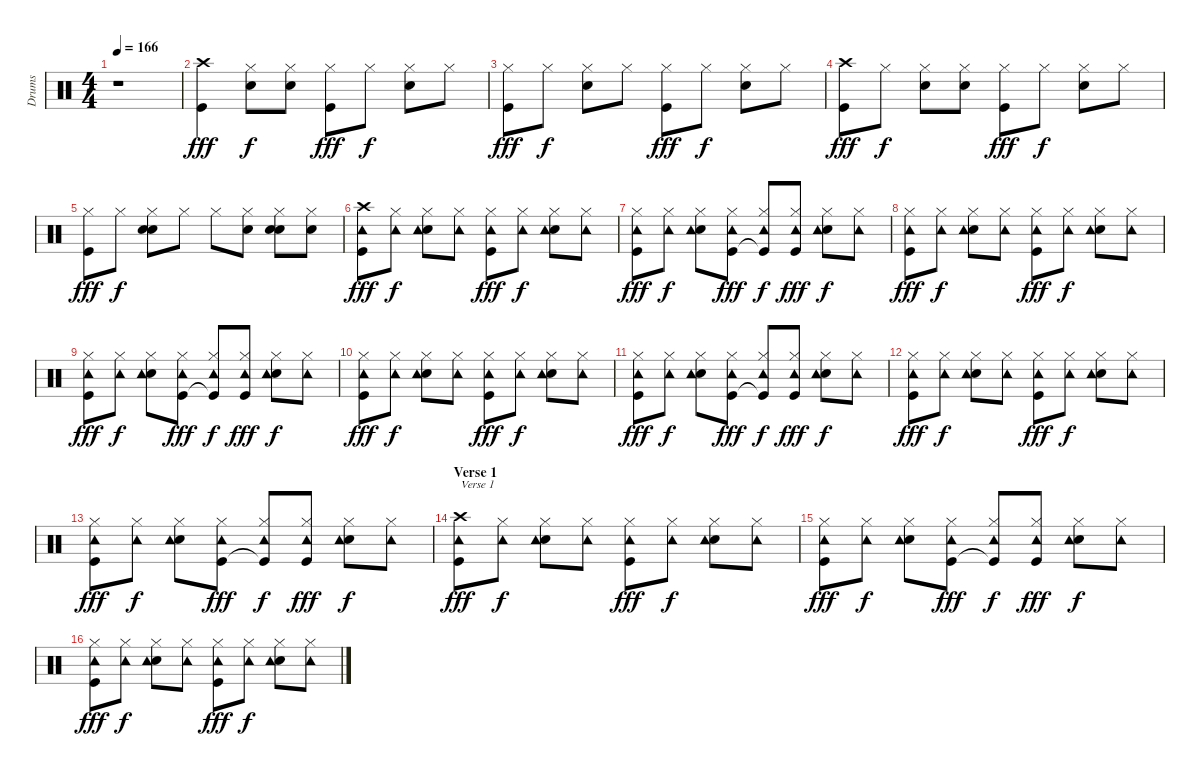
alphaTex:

\track ("Drums" "Drums") {instrument percussion}
\staff {score}
\articulation defaults
\ts (4 4)
\tempo 166
\clef neutral
\ks c
r.1{dy fff} |
("Crash high (hit)" "Kick (hit)").4 ("Hi-Hat (closed)" "Hand Clap (hit)").8{dy f} ("Hi-Hat (closed)" "Hand Clap (hit)").8 ("Hi-Hat (closed)" "Kick (hit)").8{dy fff} "Hi-Hat (closed)".8{dy f} ("Hi-Hat (closed)" "Hand Clap (hit)").8 "Hi-Hat (closed)".8 |
("Hi-Hat (closed)" "Kick (hit)").8{dy fff} "Hi-Hat (closed)".8{dy f} ("Hi-Hat (closed)" "Hand Clap (hit)").8 "Hi-Hat (closed)".8 ("Hi-Hat (closed)" "Kick (hit)").8{dy fff} "Hi-Hat (closed)".8{dy f} ("Hi-Hat (closed)" "Hand Clap (hit)").8 "Hi-Hat (closed)".8 |
("Crash high (hit)" "Kick (hit)").8{dy fff} "Hi-Hat (closed)".8{dy f} ("Hi-Hat (closed)" "Hand Clap (hit)").8 ("Hi-Hat (closed)" "Hand Clap (hit)").8 ("Hi-Hat (closed)" "Kick (hit)").8{dy fff} "Hi-Hat (closed)".8{dy f} ("Hi-Hat (closed)" "Hand Clap (hit)").8 "Hi-Hat (closed)".8 |
("Hi-Hat (closed)" "Kick (hit)").8{dy fff} "Hi-Hat (closed)".8{dy f} ("Hi-Hat (closed)" "Snare (hit) 2" "Hand Clap (hit)").8 "Hi-Hat (closed)".8 "Hi-Hat (closed)".8 ("Hi-Hat (closed)" "Snare (hit) 2").8 ("Hi-Hat (closed)" "Snare (hit) 2" "Hand Clap (hit)").8 ("Hi-Hat (closed)" "Snare (hit) 2").8 |
("Crash high (hit)" "Tambourine (hit)" "Kick (hit)").8{dy fff} ("Hi-Hat (closed)" "Tambourine (hit)").8{dy f} ("Hi-Hat (closed)" "Snare (hit) 2" "Tambourine (hit)").8 ("Hi-Hat (closed)" "Tambourine (hit)").8 ("Hi-Hat (closed)" "Tambourine (hit)" "Kick (hit)").8{dy fff} ("Hi-Hat (closed)" "Tambourine (hit)").8{dy f} ("Hi-Hat (closed)" "Snare (hit) 2" "Tambourine (hit)").8 ("Hi-Hat (closed)" "Tambourine (hit)").8 |
("Hi-Hat (closed)" "Tambourine (hit)" "Kick (hit)").8{dy fff} ("Hi-Hat (closed)" "Tambourine (hit)").8{dy f} ("Hi-Hat (closed)" "Snare (hit) 2" "Tambourine (hit)").8 ("Hi-Hat (closed)" "Tambourine (hit)" "Kick (hit)").8{dy fff} ("Hi-Hat (closed)" "Tambourine (hit)" "Kick (hit)"{t}).8{dy f} ("Hi-Hat (closed)" "Tambourine (hit)" "Kick (hit)").8{dy fff} ("Hi-Hat (closed)" "Snare (hit) 2" "Tambourine (hit)").8{dy f} ("Hi-Hat (closed)" "Tambourine (hit)").8 |
("Hi-Hat (closed)" "Tambourine (hit)" "Kick (hit)").8{dy fff} ("Hi-Hat (closed)" "Tambourine (hit)").8{dy f} ("Hi-Hat (closed)" "Snare (hit) 2" "Tambourine (hit)").8 ("Hi-Hat (closed)" "Tambourine (hit)").8 ("Hi-Hat (closed)" "Tambourine (hit)" "Kick (hit)").8{dy fff} ("Hi-Hat (closed)" "Tambourine (hit)").8{dy f} ("Hi-Hat (closed)" "Snare (hit) 2" "Tambourine (hit)").8 ("Hi-Hat (closed)" "Tambourine (hit)").8 |
("Hi-Hat (closed)" "Tambourine (hit)" "Kick (hit)").8{dy fff} ("Hi-Hat (closed)" "Tambourine (hit)").8{dy f} ("Hi-Hat (closed)" "Snare (hit) 2" "Tambourine (hit)").8 ("Hi-Hat (closed)" "Tambourine (hit)" "Kick (hit)").8{dy fff} ("Hi-Hat (closed)" "Tambourine (hit)" "Kick (hit)"{t}).8{dy f} ("Hi-Hat (closed)" "Tambourine (hit)" "Kick (hit)").8{dy fff} ("Hi-Hat (closed)" "Snare (hit) 2" "Tambourine (hit)").8{dy f} ("Hi-Hat (closed)" "Tambourine (hit)").8 |
("Hi-Hat (closed)" "Tambourine (hit)" "Kick (hit)").8{dy fff} ("Hi-Hat (closed)" "Tambourine (hit)").8{dy f} ("Hi-Hat (closed)" "Snare (hit) 2" "Tambourine (hit)").8 ("Hi-Hat (closed)" "Tambourine (hit)").8 ("Hi-Hat (closed)" "Tambourine (hit)" "Kick (hit)").8{dy fff} ("Hi-Hat (closed)" "Tambourine (hit)").8{dy f} ("Hi-Hat (closed)" "Snare (hit) 2" "Tambourine (hit)").8 ("Hi-Hat (closed)" "Tambourine (hit)").8 |
("Hi-Hat (closed)" "Tambourine (hit)" "Kick (hit)").8{dy fff} ("Hi-Hat (closed)" "Tambourine (hit)").8{dy f} ("Hi-Hat (closed)" "Snare (hit) 2" "Tambourine (hit)").8 ("Hi-Hat (closed)" "Tambourine (hit)" "Kick (hit)").8{dy fff} ("Hi-Hat (closed)" "Tambourine (hit)" "Kick (hit)"{t}).8{dy f} ("Hi-Hat (closed)" "Tambourine (hit)" "Kick (hit)").8{dy fff} ("Hi-Hat (closed)" "Snare (hit) 2" "Tambourine (hit)").8{dy f} ("Hi-Hat (closed)" "Tambourine (hit)").8 |
("Hi-Hat (closed)" "Tambourine (hit)" "Kick (hit)").8{dy fff} ("Hi-Hat (closed)" "Tambourine (hit)").8{dy f} ("Hi-Hat (closed)" "Snare (hit) 2" "Tambourine (hit)").8 ("Hi-Hat (closed)" "Tambourine (hit)").8 ("Hi-Hat (closed)" "Tambourine (hit)" "Kick (hit)").8{dy fff} ("Hi-Hat (closed)" "Tambourine (hit)").8{dy f} ("Hi-Hat (closed)" "Snare (hit) 2" "Tambourine (hit)").8 ("Hi-Hat (closed)" "Tambourine (hit)").8 |
("Hi-Hat (closed)" "Tambourine (hit)" "Kick (hit)").8{dy fff} ("Hi-Hat (closed)" "Tambourine (hit)").8{dy f} ("Hi-Hat (closed)" "Snare (hit) 2" "Tambourine (hit)").8 ("Hi-Hat (closed)" "Tambourine (hit)" "Kick (hit)").8{dy fff} ("Hi-Hat (closed)" "Tambourine (hit)" "Kick (hit)"{t}).8{dy f} ("Hi-Hat (closed)" "Tambourine (hit)" "Kick (hit)").8{dy fff} ("Hi-Hat (closed)" "Snare (hit) 2" "Tambourine (hit)").8{dy f} ("Hi-Hat (closed)" "Tambourine (hit)").8 |
\section ("" "Verse 1")
("Crash high (hit)" "Tambourine (hit)" "Kick (hit)").8{txt "Verse 1" dy fff} ("Hi-Hat (closed)" "Tambourine (hit)").8{dy f} ("Hi-Hat (closed)" "Snare (hit) 2" "Tambourine (hit)").8 ("Hi-Hat (closed)" "Tambourine (hit)").8 ("Hi-Hat (closed)" "Tambourine (hit)" "Kick (hit)").8{dy fff} ("Hi-Hat (closed)" "Tambourine (hit)").8{dy f} ("Hi-Hat (closed)" "Snare (hit) 2" "Tambourine (hit)").8 ("Hi-Hat (closed)" "Tambourine (hit)").8 |
("Hi-Hat (closed)" "Tambourine (hit)" "Kick (hit)").8{dy fff} ("Hi-Hat (closed)" "Tambourine (hit)").8{dy f} ("Hi-Hat (closed)" "Snare (hit) 2" "Tambourine (hit)").8 ("Hi-Hat (closed)" "Tambourine (hit)" "Kick (hit)").8{dy fff} ("Hi-Hat (closed)" "Tambourine (hit)" "Kick (hit)"{t}).8{dy f} ("Hi-Hat (closed)" "Tambourine (hit)" "Kick (hit)").8{dy fff} ("Hi-Hat (closed)" "Snare (hit) 2" "Tambourine (hit)").8{dy f} ("Hi-Hat (closed)" "Tambourine (hit)").8 |
("Hi-Hat (closed)" "Tambourine (hit)" "Kick (hit)").8{dy fff} ("Hi-Hat (closed)" "Tambourine (hit)").8{dy f} ("Hi-Hat (closed)" "Snare (hit) 2" "Tambourine (hit)").8 ("Hi-Hat (closed)" "Tambourine (hit)").8 ("Hi-Hat (closed)" "Tambourine (hit)" "Kick (hit)").8{dy fff} ("Hi-Hat (closed)" "Tambourine (hit)").8{dy f} ("Hi-Hat (closed)" "Snare (hit) 2" "Tambourine (hit)").8 ("Hi-Hat (closed)" "Tambourine (hit)").8
